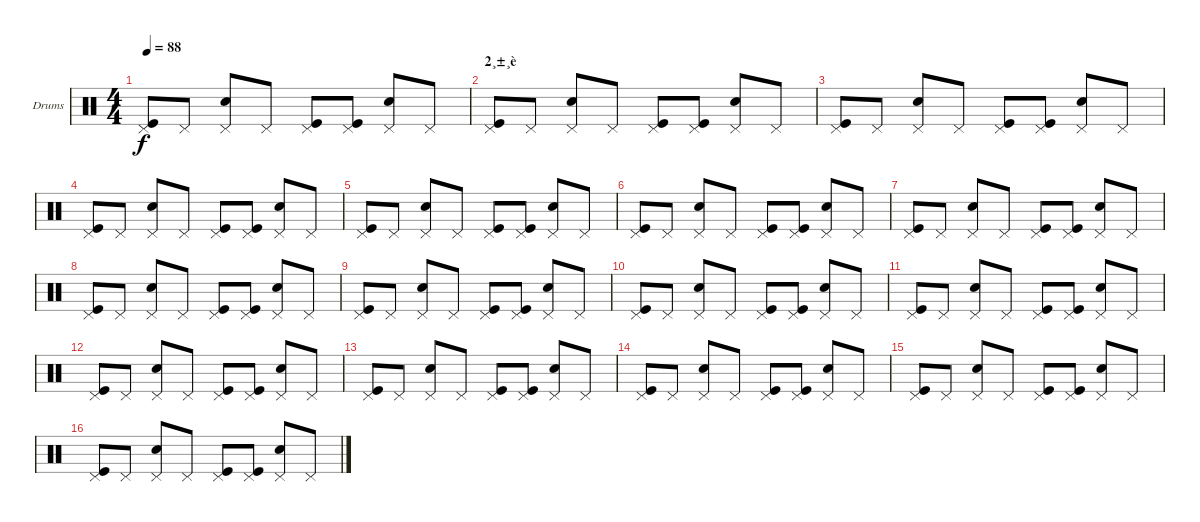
\bracketExtendMode groupsimilarinstruments
\firstSystemTrackNameOrientation horizontal
\otherSystemsTrackNameOrientation horizontal
\track ("Drumkit" "Drums") {instrument percussion}
\staff {score}
\articulation defaults
\ts (4 4)
\tempo 88
\clef neutral
\ks c
("Pedal Hi-Hat (hit)" "Kick (hit)").8{dy f} "Pedal Hi-Hat (hit)".8 ("Pedal Hi-Hat (hit)" "Snare (hit) 2").8 "Pedal Hi-Hat (hit)".8 ("Pedal Hi-Hat (hit)" "Kick (hit)").8 ("Pedal Hi-Hat (hit)" "Kick (hit)").8 ("Pedal Hi-Hat (hit)" "Snare (hit) 2").8 "Pedal Hi-Hat (hit)".8 |
\section ("" "2¸±¸è")
("Pedal Hi-Hat (hit)" "Kick (hit)").8 "Pedal Hi-Hat (hit)".8 ("Pedal Hi-Hat (hit)" "Snare (hit) 2").8 "Pedal Hi-Hat (hit)".8 ("Pedal Hi-Hat (hit)" "Kick (hit)").8 ("Pedal Hi-Hat (hit)" "Kick (hit)").8 ("Pedal Hi-Hat (hit)" "Snare (hit) 2").8 "Pedal Hi-Hat (hit)".8 |
("Pedal Hi-Hat (hit)" "Kick (hit)").8 "Pedal Hi-Hat (hit)".8 ("Pedal Hi-Hat (hit)" "Snare (hit) 2").8 "Pedal Hi-Hat (hit)".8 ("Pedal Hi-Hat (hit)" "Kick (hit)").8 ("Pedal Hi-Hat (hit)" "Kick (hit)").8 ("Pedal Hi-Hat (hit)" "Snare (hit) 2").8 "Pedal Hi-Hat (hit)".8 |
("Pedal Hi-Hat (hit)" "Kick (hit)").8 "Pedal Hi-Hat (hit)".8 ("Pedal Hi-Hat (hit)" "Snare (hit) 2").8 "Pedal Hi-Hat (hit)".8 ("Pedal Hi-Hat (hit)" "Kick (hit)").8 ("Pedal Hi-Hat (hit)" "Kick (hit)").8 ("Pedal Hi-Hat (hit)" "Snare (hit) 2").8 "Pedal Hi-Hat (hit)".8 |
("Pedal Hi-Hat (hit)" "Kick (hit)").8 "Pedal Hi-Hat (hit)".8 ("Pedal Hi-Hat (hit)" "Snare (hit) 2").8 "Pedal Hi-Hat (hit)".8 ("Pedal Hi-Hat (hit)" "Kick (hit)").8 ("Pedal Hi-Hat (hit)" "Kick (hit)").8 ("Pedal Hi-Hat (hit)" "Snare (hit) 2").8 "Pedal Hi-Hat (hit)".8 |
("Pedal Hi-Hat (hit)" "Kick (hit)").8 "Pedal Hi-Hat (hit)".8 ("Pedal Hi-Hat (hit)" "Snare (hit) 2").8 "Pedal Hi-Hat (hit)".8 ("Pedal Hi-Hat (hit)" "Kick (hit)").8 ("Pedal Hi-Hat (hit)" "Kick (hit)").8 ("Pedal Hi-Hat (hit)" "Snare (hit) 2").8 "Pedal Hi-Hat (hit)".8 |
("Pedal Hi-Hat (hit)" "Kick (hit)").8 "Pedal Hi-Hat (hit)".8 ("Pedal Hi-Hat (hit)" "Snare (hit) 2").8 "Pedal Hi-Hat (hit)".8 ("Pedal Hi-Hat (hit)" "Kick (hit)").8 ("Pedal Hi-Hat (hit)" "Kick (hit)").8 ("Pedal Hi-Hat (hit)" "Snare (hit) 2").8 "Pedal Hi-Hat (hit)".8 |
("Pedal Hi-Hat (hit)" "Kick (hit)").8 "Pedal Hi-Hat (hit)".8 ("Pedal Hi-Hat (hit)" "Snare (hit) 2").8 "Pedal Hi-Hat (hit)".8 ("Pedal Hi-Hat (hit)" "Kick (hit)").8 ("Pedal Hi-Hat (hit)" "Kick (hit)").8 ("Pedal Hi-Hat (hit)" "Snare (hit) 2").8 "Pedal Hi-Hat (hit)".8 |
("Pedal Hi-Hat (hit)" "Kick (hit)").8 "Pedal Hi-Hat (hit)".8 ("Pedal Hi-Hat (hit)" "Snare (hit) 2").8 "Pedal Hi-Hat (hit)".8 ("Pedal Hi-Hat (hit)" "Kick (hit)").8 ("Pedal Hi-Hat (hit)" "Kick (hit)").8 ("Pedal Hi-Hat (hit)" "Snare (hit) 2").8 "Pedal Hi-Hat (hit)".8 |
("Pedal Hi-Hat (hit)" "Kick (hit)").8 "Pedal Hi-Hat (hit)".8 ("Pedal Hi-Hat (hit)" "Snare (hit) 2").8 "Pedal Hi-Hat (hit)".8 ("Pedal Hi-Hat (hit)" "Kick (hit)").8 ("Pedal Hi-Hat (hit)" "Kick (hit)").8 ("Pedal Hi-Hat (hit)" "Snare (hit) 2").8 "Pedal Hi-Hat (hit)".8 |
("Pedal Hi-Hat (hit)" "Kick (hit)").8 "Pedal Hi-Hat (hit)".8 ("Pedal Hi-Hat (hit)" "Snare (hit) 2").8 "Pedal Hi-Hat (hit)".8 ("Pedal Hi-Hat (hit)" "Kick (hit)").8 ("Pedal Hi-Hat (hit)" "Kick (hit)").8 ("Pedal Hi-Hat (hit)" "Snare (hit) 2").8 "Pedal Hi-Hat (hit)".8 |
("Pedal Hi-Hat (hit)" "Kick (hit)").8 "Pedal Hi-Hat (hit)".8 ("Pedal Hi-Hat (hit)" "Snare (hit) 2").8 "Pedal Hi-Hat (hit)".8 ("Pedal Hi-Hat (hit)" "Kick (hit)").8 ("Pedal Hi-Hat (hit)" "Kick (hit)").8 ("Pedal Hi-Hat (hit)" "Snare (hit) 2").8 "Pedal Hi-Hat (hit)".8 |
("Pedal Hi-Hat (hit)" "Kick (hit)").8 "Pedal Hi-Hat (hit)".8 ("Pedal Hi-Hat (hit)" "Snare (hit) 2").8 "Pedal Hi-Hat (hit)".8 ("Pedal Hi-Hat (hit)" "Kick (hit)").8 ("Pedal Hi-Hat (hit)" "Kick (hit)").8 ("Pedal Hi-Hat (hit)" "Snare (hit) 2").8 "Pedal Hi-Hat (hit)".8 |
("Pedal Hi-Hat (hit)" "Kick (hit)").8 "Pedal Hi-Hat (hit)".8 ("Pedal Hi-Hat (hit)" "Snare (hit) 2").8 "Pedal Hi-Hat (hit)".8 ("Pedal Hi-Hat (hit)" "Kick (hit)").8 ("Pedal Hi-Hat (hit)" "Kick (hit)").8 ("Pedal Hi-Hat (hit)" "Snare (hit) 2").8 "Pedal Hi-Hat (hit)".8 |
("Pedal Hi-Hat (hit)" "Kick (hit)").8 "Pedal Hi-Hat (hit)".8 ("Pedal Hi-Hat (hit)" "Snare (hit) 2").8 "Pedal Hi-Hat (hit)".8 ("Pedal Hi-Hat (hit)" "Kick (hit)").8 ("Pedal Hi-Hat (hit)" "Kick (hit)").8 ("Pedal Hi-Hat (hit)" "Snare (hit) 2").8 "Pedal Hi-Hat (hit)".8 |
("Pedal Hi-Hat (hit)" "Kick (hit)").8 "Pedal Hi-Hat (hit)".8 ("Pedal Hi-Hat (hit)" "Snare (hit) 2").8 "Pedal Hi-Hat (hit)".8 ("Pedal Hi-Hat (hit)" "Kick (hit)").8 ("Pedal Hi-Hat (hit)" "Kick (hit)").8 ("Pedal Hi-Hat (hit)" "Snare (hit) 2").8 "Pedal Hi-Hat (hit)".8
